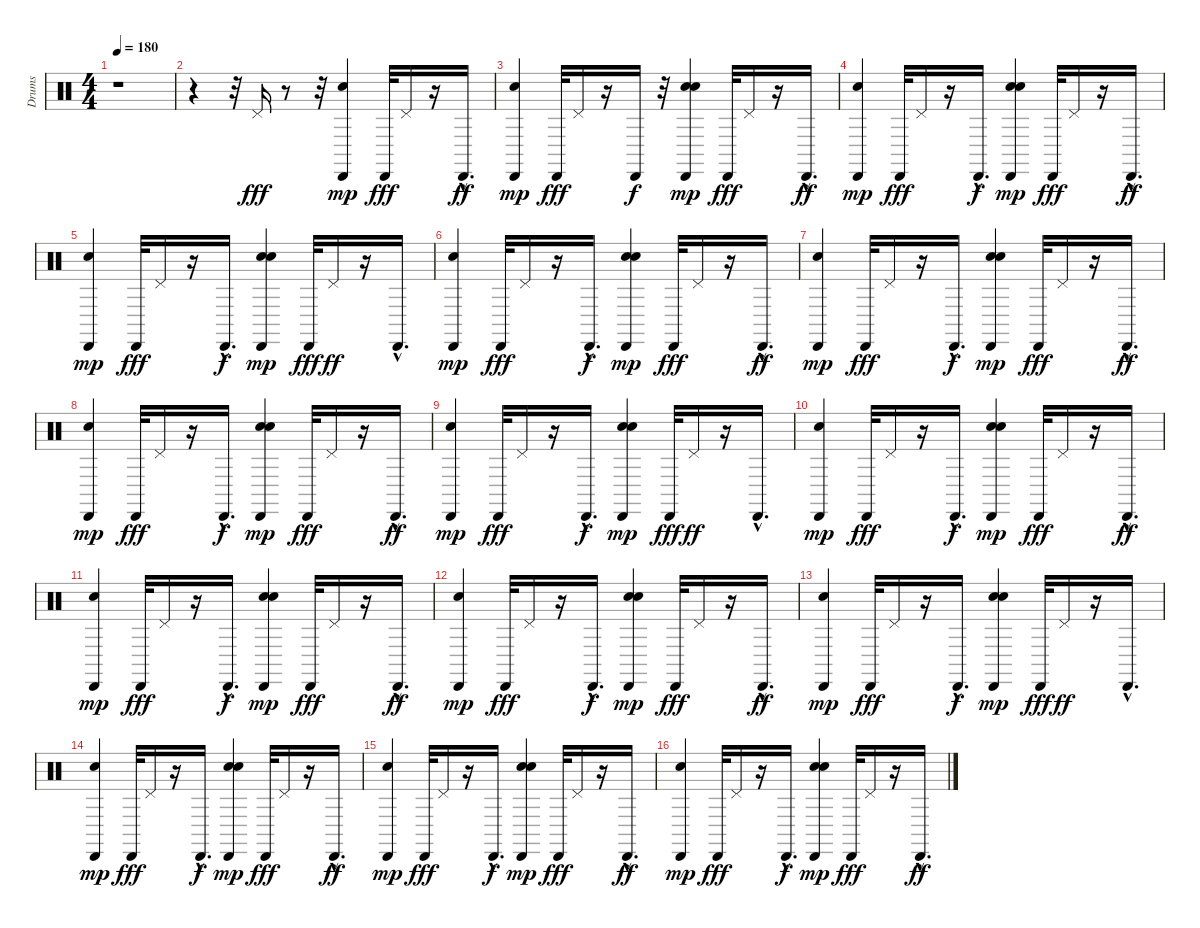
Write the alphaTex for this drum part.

\track ("Drums" "Drums") {instrument percussion}
\staff {score}
\articulation defaults
\ts (4 4)
\tempo 180
\clef neutral
\ks c
r.1{dy fff} |
r.4 r.32 "Pedal Hi-Hat (hit)".16 r.8 r.32 ("Snare (hit) 2" "Cabasa (hit)").4{dy mp} "Cabasa (hit)".32{dy fff} "Pedal Hi-Hat (hit)".16 r.16 "Cabasa (hit)"{hac}.16{d dy ff} |
("Snare (hit) 2" "Cabasa (hit)").4{dy mp} "Cabasa (hit)".32{dy fff} "Pedal Hi-Hat (hit)".16 r.16 "Cabasa (hit)".16{dy f} r.32 ("Snare (hit) 2" "Snare (hit) 2" "Cabasa (hit)").4{dy mp} "Cabasa (hit)".32{dy fff} "Pedal Hi-Hat (hit)".16 r.16 "Cabasa (hit)"{hac}.16{d dy ff} |
("Snare (hit) 2" "Cabasa (hit)").4{dy mp} "Cabasa (hit)".32{dy fff} "Pedal Hi-Hat (hit)".16 r.16 "Cabasa (hit)"{hac}.16{d dy f} ("Snare (hit) 2" "Snare (hit) 2" "Cabasa (hit)").4{dy mp} "Cabasa (hit)".32{dy fff} "Pedal Hi-Hat (hit)".16 r.16 "Cabasa (hit)"{hac}.16{d dy ff} |
("Snare (hit) 2" "Cabasa (hit)").4{dy mp} "Cabasa (hit)".32{dy fff} "Pedal Hi-Hat (hit)".16 r.16 "Cabasa (hit)"{hac}.16{d dy f} ("Snare (hit) 2" "Snare (hit) 2" "Cabasa (hit)").4{dy mp} "Cabasa (hit)".32{dy fff} "Pedal Hi-Hat (hit)".16{dy ff} r.16 "Cabasa (hit)"{hac}.16{d} |
("Snare (hit) 2" "Cabasa (hit)").4{dy mp} "Cabasa (hit)".32{dy fff} "Pedal Hi-Hat (hit)".16 r.16 "Cabasa (hit)"{hac}.16{d dy f} ("Snare (hit) 2" "Snare (hit) 2" "Cabasa (hit)").4{dy mp} "Cabasa (hit)".32{dy fff} "Pedal Hi-Hat (hit)".16 r.16 "Cabasa (hit)"{hac}.16{d dy ff} |
("Snare (hit) 2" "Cabasa (hit)").4{dy mp} "Cabasa (hit)".32{dy fff} "Pedal Hi-Hat (hit)".16 r.16 "Cabasa (hit)"{hac}.16{d dy f} ("Snare (hit) 2" "Snare (hit) 2" "Cabasa (hit)").4{dy mp} "Cabasa (hit)".32{dy fff} "Pedal Hi-Hat (hit)".16 r.16 "Cabasa (hit)"{hac}.16{d dy ff} |
("Snare (hit) 2" "Cabasa (hit)").4{dy mp} "Cabasa (hit)".32{dy fff} "Pedal Hi-Hat (hit)".16 r.16 "Cabasa (hit)"{hac}.16{d dy f} ("Snare (hit) 2" "Snare (hit) 2" "Cabasa (hit)").4{dy mp} "Cabasa (hit)".32{dy fff} "Pedal Hi-Hat (hit)".16 r.16 "Cabasa (hit)"{hac}.16{d dy ff} |
("Snare (hit) 2" "Cabasa (hit)").4{dy mp} "Cabasa (hit)".32{dy fff} "Pedal Hi-Hat (hit)".16 r.16 "Cabasa (hit)"{hac}.16{d dy f} ("Snare (hit) 2" "Snare (hit) 2" "Cabasa (hit)").4{dy mp} "Cabasa (hit)".32{dy fff} "Pedal Hi-Hat (hit)".16{dy ff} r.16 "Cabasa (hit)"{hac}.16{d} |
("Snare (hit) 2" "Cabasa (hit)").4{dy mp} "Cabasa (hit)".32{dy fff} "Pedal Hi-Hat (hit)".16 r.16 "Cabasa (hit)"{hac}.16{d dy f} ("Snare (hit) 2" "Snare (hit) 2" "Cabasa (hit)").4{dy mp} "Cabasa (hit)".32{dy fff} "Pedal Hi-Hat (hit)".16 r.16 "Cabasa (hit)"{hac}.16{d dy ff} |
("Snare (hit) 2" "Cabasa (hit)").4{dy mp} "Cabasa (hit)".32{dy fff} "Pedal Hi-Hat (hit)".16 r.16 "Cabasa (hit)"{hac}.16{d dy f} ("Snare (hit) 2" "Snare (hit) 2" "Cabasa (hit)").4{dy mp} "Cabasa (hit)".32{dy fff} "Pedal Hi-Hat (hit)".16 r.16 "Cabasa (hit)"{hac}.16{d dy ff} |
("Snare (hit) 2" "Cabasa (hit)").4{dy mp} "Cabasa (hit)".32{dy fff} "Pedal Hi-Hat (hit)".16 r.16 "Cabasa (hit)"{hac}.16{d dy f} ("Snare (hit) 2" "Snare (hit) 2" "Cabasa (hit)").4{dy mp} "Cabasa (hit)".32{dy fff} "Pedal Hi-Hat (hit)".16 r.16 "Cabasa (hit)"{hac}.16{d dy ff} |
("Snare (hit) 2" "Cabasa (hit)").4{dy mp} "Cabasa (hit)".32{dy fff} "Pedal Hi-Hat (hit)".16 r.16 "Cabasa (hit)"{hac}.16{d dy f} ("Snare (hit) 2" "Snare (hit) 2" "Cabasa (hit)").4{dy mp} "Cabasa (hit)".32{dy fff} "Pedal Hi-Hat (hit)".16{dy ff} r.16 "Cabasa (hit)"{hac}.16{d} |
("Snare (hit) 2" "Cabasa (hit)").4{dy mp} "Cabasa (hit)".32{dy fff} "Pedal Hi-Hat (hit)".16 r.16 "Cabasa (hit)"{hac}.16{d dy f} ("Snare (hit) 2" "Snare (hit) 2" "Cabasa (hit)").4{dy mp} "Cabasa (hit)".32{dy fff} "Pedal Hi-Hat (hit)".16 r.16 "Cabasa (hit)"{hac}.16{d dy ff} |
("Snare (hit) 2" "Cabasa (hit)").4{dy mp} "Cabasa (hit)".32{dy fff} "Pedal Hi-Hat (hit)".16 r.16 "Cabasa (hit)"{hac}.16{d dy f} ("Snare (hit) 2" "Snare (hit) 2" "Cabasa (hit)").4{dy mp} "Cabasa (hit)".32{dy fff} "Pedal Hi-Hat (hit)".16 r.16 "Cabasa (hit)"{hac}.16{d dy ff} |
("Snare (hit) 2" "Cabasa (hit)").4{dy mp} "Cabasa (hit)".32{dy fff} "Pedal Hi-Hat (hit)".16 r.16 "Cabasa (hit)"{hac}.16{d dy f} ("Snare (hit) 2" "Snare (hit) 2" "Cabasa (hit)").4{dy mp} "Cabasa (hit)".32{dy fff} "Pedal Hi-Hat (hit)".16 r.16 "Cabasa (hit)"{hac}.16{d dy ff}
